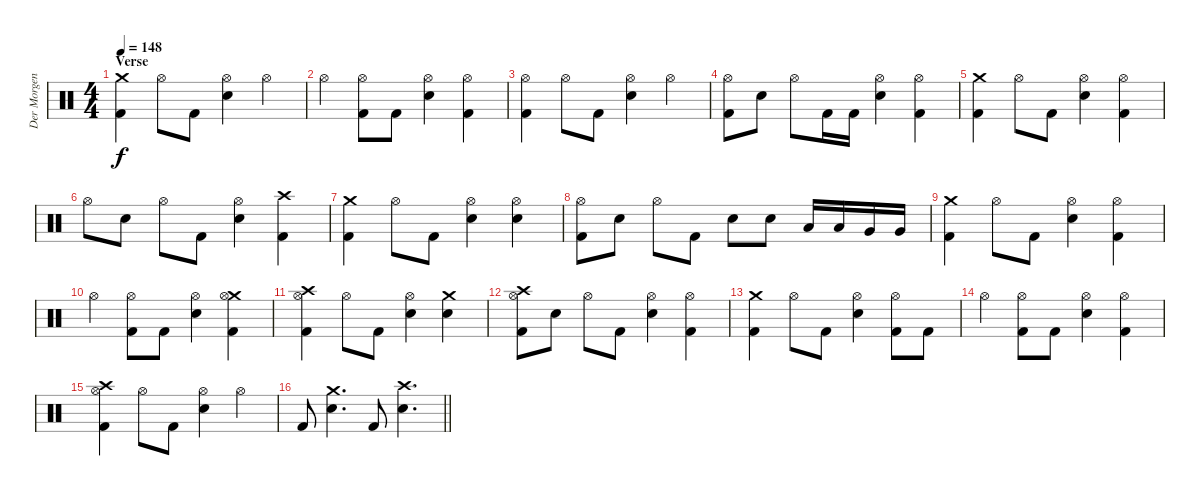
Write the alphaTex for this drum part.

\track ("Der Morgenstern" "Der Morgen") {instrument percussion}
\staff {score}
\articulation defaults
\ts (4 4)
\section ("" "Verse")
\tempo 148
\clef neutral
\ks c
("Crash medium (hit)" "Kick (hit) 2").4{dy f} "Hi-Hat (open)".8 "Kick (hit) 2".8 ("Hi-Hat (open)" "Electric Snare (hit)").4 "Hi-Hat (open)".4 |
"Hi-Hat (open)".4 ("Hi-Hat (open)" "Kick (hit) 2").8 "Kick (hit) 2".8 ("Hi-Hat (open)" "Electric Snare (hit)").4 ("Hi-Hat (open)" "Kick (hit) 2").4 |
("Hi-Hat (open)" "Kick (hit) 2").4 "Hi-Hat (open)".8 "Kick (hit) 2".8 ("Hi-Hat (open)" "Electric Snare (hit)").4 "Hi-Hat (open)".4 |
("Hi-Hat (open)" "Kick (hit) 2").8 "Electric Snare (hit)".8 "Hi-Hat (open)".8 "Kick (hit) 2".16 "Kick (hit) 2".16 ("Hi-Hat (open)" "Electric Snare (hit)").4 ("Hi-Hat (open)" "Kick (hit) 2").4 |
("Crash medium (hit)" "Kick (hit) 2").4 "Hi-Hat (open)".8 "Kick (hit) 2".8 ("Hi-Hat (open)" "Electric Snare (hit)").4 ("Hi-Hat (open)" "Kick (hit) 2").4 |
"Hi-Hat (open)".8 "Electric Snare (hit)".8 "Hi-Hat (open)".8 "Kick (hit) 2".8 ("Hi-Hat (open)" "Electric Snare (hit)").4 ("Crash high (hit)" "Kick (hit) 2").4 |
("Crash medium (hit)" "Kick (hit) 2").4 "Hi-Hat (open)".8 "Kick (hit) 2".8 ("Hi-Hat (open)" "Electric Snare (hit)").4 ("Hi-Hat (open)" "Electric Snare (hit)").4 |
("Hi-Hat (open)" "Kick (hit) 2").8 "Electric Snare (hit)".8 "Hi-Hat (open)".8 "Kick (hit) 2".8 "Electric Snare (hit)".8 "Electric Snare (hit)".8 "Low Tom (hit)".16 "Low Tom (hit)".16 "Very Low Tom (hit)".16 "Very Low Tom (hit)".16 |
("Crash medium (hit)" "Kick (hit) 2").4 "Hi-Hat (open)".8 "Kick (hit) 2".8 ("Hi-Hat (open)" "Electric Snare (hit)").4 ("Hi-Hat (open)" "Kick (hit) 2").4 |
"Hi-Hat (open)".4 ("Hi-Hat (open)" "Kick (hit) 2").8 "Kick (hit) 2".8 ("Hi-Hat (open)" "Electric Snare (hit)").4 ("Crash medium (hit)" "Hi-Hat (open)" "Kick (hit) 2").4 |
("Crash high (hit)" "Hi-Hat (open)" "Kick (hit) 2").4 "Hi-Hat (open)".8 "Kick (hit) 2".8 ("Hi-Hat (open)" "Electric Snare (hit)").4 ("Crash medium (hit)" "Electric Snare (hit)").4 |
("Crash high (hit)" "Hi-Hat (open)" "Kick (hit) 2").8 "Electric Snare (hit)".8 "Hi-Hat (open)".8 "Kick (hit) 2".8 ("Hi-Hat (open)" "Electric Snare (hit)").4 ("Hi-Hat (open)" "Kick (hit) 2").4 |
("Crash medium (hit)" "Kick (hit) 2").4 "Hi-Hat (open)".8 "Kick (hit) 2".8 ("Hi-Hat (open)" "Electric Snare (hit)").4 ("Hi-Hat (open)" "Kick (hit) 2").8 "Kick (hit) 2".8 |
"Hi-Hat (open)".4 ("Hi-Hat (open)" "Kick (hit) 2").8 "Kick (hit) 2".8 ("Hi-Hat (open)" "Electric Snare (hit)").4 ("Hi-Hat (open)" "Kick (hit) 2").4 |
("Crash high (hit)" "Hi-Hat (open)" "Kick (hit) 2").4 "Hi-Hat (open)".8 "Kick (hit) 2".8 ("Hi-Hat (open)" "Electric Snare (hit)").4 "Hi-Hat (open)".4 |
\barLineRight lightlight "Kick (hit) 2".8
("Crash medium (hit)" "Electric Snare (hit)").4{d} "Kick (hit) 2".8 ("Crash high (hit)" "Electric Snare (hit)").4{d}
